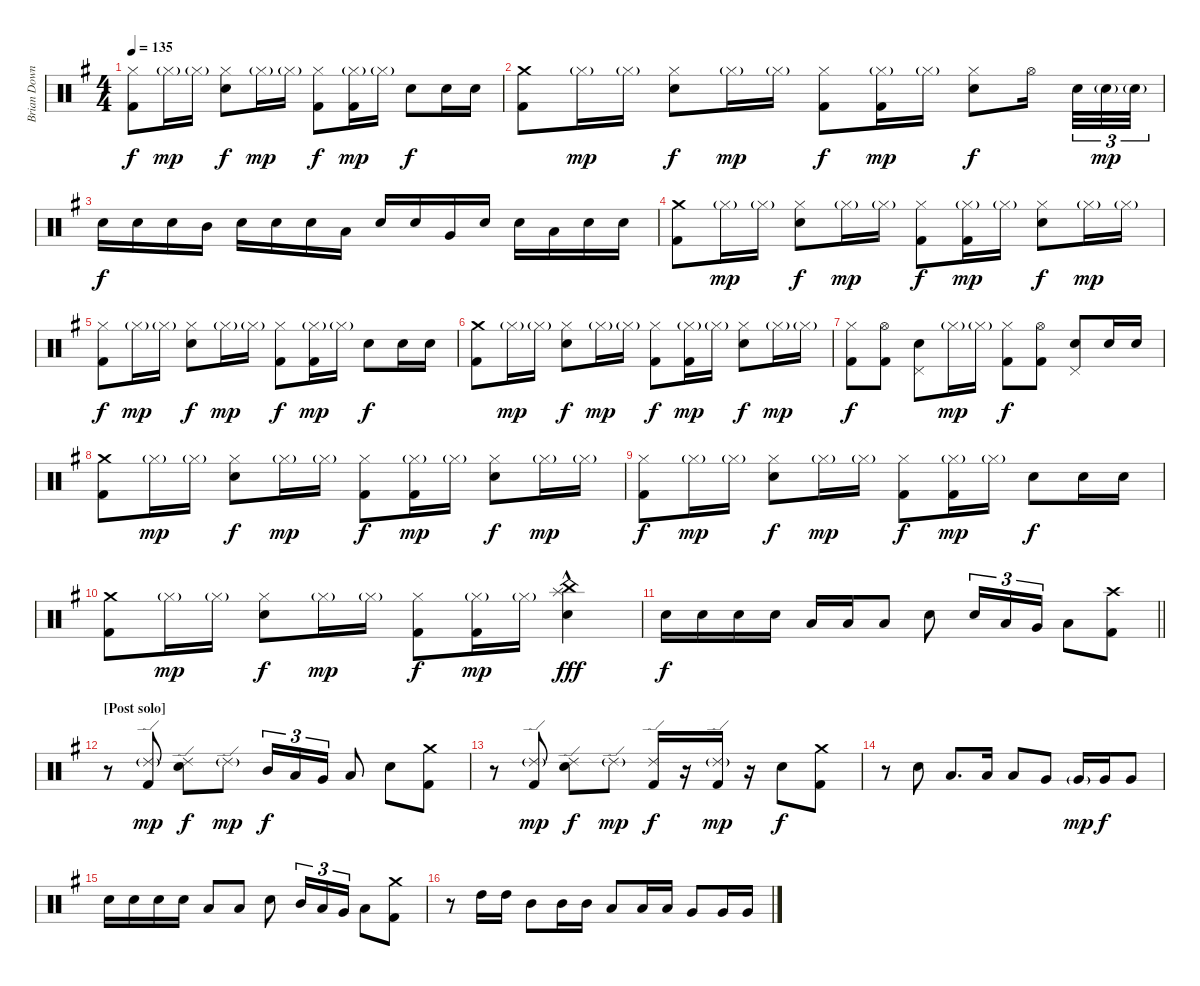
\track ("Brian Downey" "Brian Down") {instrument percussion}
\staff {score}
\articulation defaults
\ts (4 4)
\tempo 135
\clef neutral
\ks eminor
("Hi-Hat (closed)" "Kick (hit) 2").8{dy f} "Hi-Hat (closed)"{g}.16{dy mp} "Hi-Hat (closed)"{g}.16 ("Hi-Hat (closed)" "Electric Snare (hit)").8{dy f} "Hi-Hat (closed)"{g}.16{dy mp} "Hi-Hat (closed)"{g}.16 ("Hi-Hat (closed)" "Kick (hit) 2").8{dy f} ("Hi-Hat (closed)"{g} "Kick (hit) 2").16{dy mp} "Hi-Hat (closed)"{g}.16 "Electric Snare (hit)".8{dy f} "Electric Snare (hit)".16 "Electric Snare (hit)".16 |
("Crash medium (hit)" "Kick (hit) 2").8 "Hi-Hat (closed)"{g}.16{dy mp} "Hi-Hat (closed)"{g}.16 ("Hi-Hat (closed)" "Electric Snare (hit)").8{dy f} "Hi-Hat (closed)"{g}.16{dy mp} "Hi-Hat (closed)"{g}.16 ("Hi-Hat (closed)" "Kick (hit) 2").8{dy f} ("Hi-Hat (closed)"{g} "Kick (hit) 2").16{dy mp} "Hi-Hat (closed)"{g}.16 ("Hi-Hat (closed)" "Electric Snare (hit)").8{dy f} "Hi-Hat (open)".16{beam splitsecondary} "Electric Snare (hit)".32{tu (3 2)} "Electric Snare (hit)"{g}.32{tu (3 2) dy mp} "Electric Snare (hit)"{g}.32{tu (3 2)} |
"Electric Snare (hit)".16{dy f} "Electric Snare (hit)".16 "Electric Snare (hit)".16 "Mid Tom (hit)".16 "Electric Snare (hit)".16 "Electric Snare (hit)".16 "Electric Snare (hit)".16 "Low Tom (hit)".16 "Electric Snare (hit)".16 "Electric Snare (hit)".16 "Very Low Tom (hit)".16 "Electric Snare (hit)".16 "Electric Snare (hit)".16 "Low Floor Tom (hit)".16 "Electric Snare (hit)".16 "Electric Snare (hit)".16 |
("Crash medium (hit)" "Kick (hit) 2").8 "Hi-Hat (closed)"{g}.16{dy mp} "Hi-Hat (closed)"{g}.16 ("Hi-Hat (closed)" "Electric Snare (hit)").8{dy f} "Hi-Hat (closed)"{g}.16{dy mp} "Hi-Hat (closed)"{g}.16 ("Hi-Hat (closed)" "Kick (hit) 2").8{dy f} ("Hi-Hat (closed)"{g} "Kick (hit) 2").16{dy mp} "Hi-Hat (closed)"{g}.16 ("Hi-Hat (closed)" "Electric Snare (hit)").8{dy f} "Hi-Hat (closed)"{g}.16{dy mp} "Hi-Hat (closed)"{g}.16 |
("Hi-Hat (closed)" "Kick (hit) 2").8{dy f} "Hi-Hat (closed)"{g}.16{dy mp} "Hi-Hat (closed)"{g}.16 ("Hi-Hat (closed)" "Electric Snare (hit)").8{dy f} "Hi-Hat (closed)"{g}.16{dy mp} "Hi-Hat (closed)"{g}.16 ("Hi-Hat (closed)" "Kick (hit) 2").8{dy f} ("Hi-Hat (closed)"{g} "Kick (hit) 2").16{dy mp} "Hi-Hat (closed)"{g}.16 "Electric Snare (hit)".8{dy f} "Electric Snare (hit)".16 "Electric Snare (hit)".16 |
("Crash medium (hit)" "Kick (hit) 2").8 "Hi-Hat (closed)"{g}.16{dy mp} "Hi-Hat (closed)"{g}.16 ("Hi-Hat (closed)" "Electric Snare (hit)").8{dy f} "Hi-Hat (closed)"{g}.16{dy mp} "Hi-Hat (closed)"{g}.16 ("Hi-Hat (closed)" "Kick (hit) 2").8{dy f} ("Hi-Hat (closed)"{g} "Kick (hit) 2").16{dy mp} "Hi-Hat (closed)"{g}.16 ("Hi-Hat (closed)" "Electric Snare (hit)").8{dy f} "Hi-Hat (closed)"{g}.16{dy mp} "Hi-Hat (closed)"{g}.16 |
("Hi-Hat (closed)" "Kick (hit) 2").8{dy f} ("Hi-Hat (open)" "Kick (hit) 2").8 ("Pedal Hi-Hat (hit)" "Electric Snare (hit)").8 "Hi-Hat (closed)"{g}.16{dy mp} "Hi-Hat (closed)"{g}.16 ("Hi-Hat (closed)" "Kick (hit) 2").8{dy f} ("Hi-Hat (open)" "Kick (hit) 2").8 ("Pedal Hi-Hat (hit)" "Electric Snare (hit)").8 "Electric Snare (hit)".16 "Electric Snare (hit)".16 |
("Crash medium (hit)" "Kick (hit) 2").8 "Hi-Hat (closed)"{g}.16{dy mp} "Hi-Hat (closed)"{g}.16 ("Hi-Hat (closed)" "Electric Snare (hit)").8{dy f} "Hi-Hat (closed)"{g}.16{dy mp} "Hi-Hat (closed)"{g}.16 ("Hi-Hat (closed)" "Kick (hit) 2").8{dy f} ("Hi-Hat (closed)"{g} "Kick (hit) 2").16{dy mp} "Hi-Hat (closed)"{g}.16 ("Hi-Hat (closed)" "Electric Snare (hit)").8{dy f} "Hi-Hat (closed)"{g}.16{dy mp} "Hi-Hat (closed)"{g}.16 |
("Hi-Hat (closed)" "Kick (hit) 2").8{dy f} "Hi-Hat (closed)"{g}.16{dy mp} "Hi-Hat (closed)"{g}.16 ("Hi-Hat (closed)" "Electric Snare (hit)").8{dy f} "Hi-Hat (closed)"{g}.16{dy mp} "Hi-Hat (closed)"{g}.16 ("Hi-Hat (closed)" "Kick (hit) 2").8{dy f} ("Hi-Hat (closed)"{g} "Kick (hit) 2").16{dy mp} "Hi-Hat (closed)"{g}.16 "Electric Snare (hit)".8{dy f} "Electric Snare (hit)".16 "Electric Snare (hit)".16 |
("Crash medium (hit)" "Kick (hit) 2").8 "Hi-Hat (closed)"{g}.16{dy mp} "Hi-Hat (closed)"{g}.16 ("Hi-Hat (closed)" "Electric Snare (hit)").8{dy f} "Hi-Hat (closed)"{g}.16{dy mp} "Hi-Hat (closed)"{g}.16 ("Hi-Hat (closed)" "Kick (hit) 2").8{dy f} ("Hi-Hat (closed)"{g} "Kick (hit) 2").16{dy mp} "Hi-Hat (closed)"{g}.16 ("Splash (hit)"{hac} "China (hit)" "Electric Snare (hit)").4{dy fff} |
\barLineRight lightlight "Electric Snare (hit)".16{dy f} "Electric Snare (hit)".16 "Electric Snare (hit)".16 "Electric Snare (hit)".16 "Low Tom (hit)".16 "Low Tom (hit)".16 "Low Tom (hit)".8 "Electric Snare (hit)".8 "Electric Snare (hit)".16{tu (3 2)} "Low Tom (hit)".16{tu (3 2)} "Very Low Tom (hit)".16{tu (3 2)} "Low Floor Tom (hit)".8
("Crash high (hit)" "Kick (hit) 2").8 |
\section ("" "[Post solo]")
r.8 ("Ride (edge) 2"{g} "Kick (hit) 2").8{dy mp} ("Ride (edge) 2" "Electric Snare (hit)").8{dy f} "Ride (edge) 2"{g}.8{dy mp} "Mid Tom (hit)".16{tu (3 2) dy f} "Low Tom (hit)".16{tu (3 2)} "Very Low Tom (hit)".16{tu (3 2)} "Low Floor Tom (hit)".8 "Electric Snare (hit)".8 ("Crash medium (hit)" "Kick (hit) 2").8 |
r.8 ("Ride (edge) 2"{g} "Kick (hit) 2").8{dy mp} ("Ride (edge) 2" "Electric Snare (hit)").8{dy f} "Ride (edge) 2"{g}.8{dy mp} ("Ride (edge) 2" "Kick (hit) 2").16{dy f} r.16 ("Ride (edge) 2"{g} "Kick (hit) 2").16{dy mp} r.16 "Electric Snare (hit)".8{dy f} ("Crash medium (hit)" "Kick (hit) 2").8 |
r.8 "Electric Snare (hit)".8 "Low Tom (hit)".8{d} "Low Tom (hit)".16 "Low Tom (hit)".8 "Very Low Tom (hit)".8 "Very Low Tom (hit)"{g}.16{dy mp} "Very Low Tom (hit)".16{dy f} "Very Low Tom (hit)".8 |
"Electric Snare (hit)".16 "Electric Snare (hit)".16 "Electric Snare (hit)".16 "Electric Snare (hit)".16 "Low Tom (hit)".8 "Low Tom (hit)".8 "Electric Snare (hit)".8 "Mid Tom (hit)".16{tu (3 2)} "Low Tom (hit)".16{tu (3 2)} "Very Low Tom (hit)".16{tu (3 2)} "Low Floor Tom (hit)".8 ("Crash medium (hit)" "Kick (hit) 2").8 |
r.8 "High Tom (hit)".16 "High Tom (hit)".16 "Mid Tom (hit)".8 "Mid Tom (hit)".16 "Mid Tom (hit)".16 "Low Tom (hit)".8 "Low Tom (hit)".16 "Low Tom (hit)".16 "Very Low Tom (hit)".8 "Very Low Tom (hit)".16 "Very Low Tom (hit)".16
